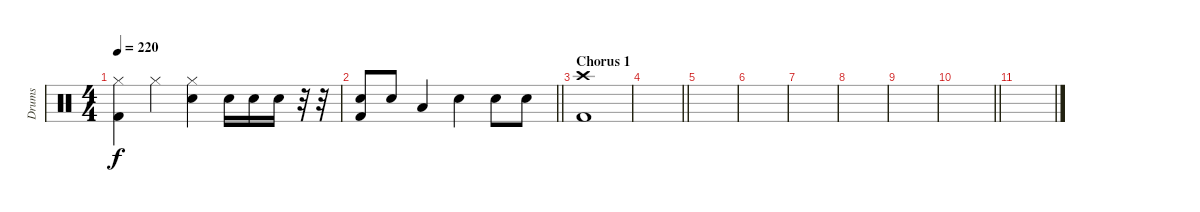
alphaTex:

\track ("Drums" "Drums") {instrument percussion}
\staff {score}
\articulation defaults
\ts (4 4)
\tempo 220
\clef neutral
\ks c
("Hi-Hat (closed)" "Kick (hit) 2").4{dy f} "Hi-Hat (closed)".4 ("Hi-Hat (closed)" "Electric Snare (hit)").4 "Electric Snare (hit)".16 "Electric Snare (hit)".16 "Electric Snare (hit)".16 r.32 r.32 |
\barLineRight lightlight
("Electric Snare (hit)" "Kick (hit) 2").8 "Electric Snare (hit)".8 "Low Tom (hit)".4 "Electric Snare (hit)".4 "Electric Snare (hit)".8 "Electric Snare (hit)".8 |
\section ("" "Chorus 1")
("Crash high (hit)" "Kick (hit) 2").1 |
\barLineRight lightlight
|
|
|
|
|
|
\barLineRight lightlight
|
\section ("" "")
